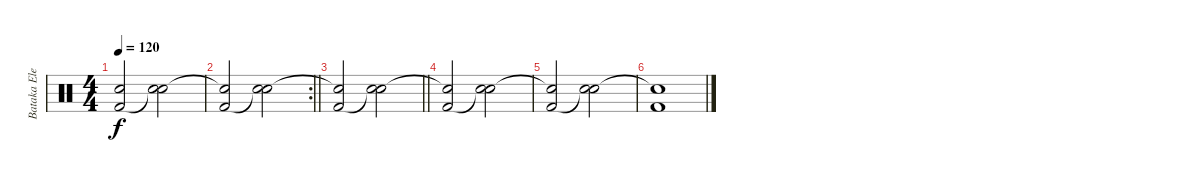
\track ("Bataka Electrica" "Bataka Ele") {instrument percussion}
\staff {score}
\articulation defaults
\ts (4 4)
\tempo 120
\clef neutral
\ks c
("Snare (hit)"{t} "Kick (hit) 2").2{dy f} ("Snare (hit) 2" "Snare (hit)"{t}).2 |
\rc 2
\barLineRight lightlight
("Snare (hit)"{t} "Kick (hit) 2").2 ("Snare (hit) 2" "Snare (hit)"{t}).2 |
\section ("" "")
\barLineRight lightlight
("Snare (hit)"{t} "Kick (hit) 2").2 ("Snare (hit) 2" "Snare (hit)"{t}).2 |
\section ("" "")
("Snare (hit)"{t} "Kick (hit) 2").2 ("Snare (hit) 2" "Snare (hit)"{t}).2 |
("Snare (hit)"{t} "Kick (hit) 2").2 ("Snare (hit) 2" "Snare (hit)"{t}).2 |
("Snare (hit)"{t} "Kick (hit) 2").1
